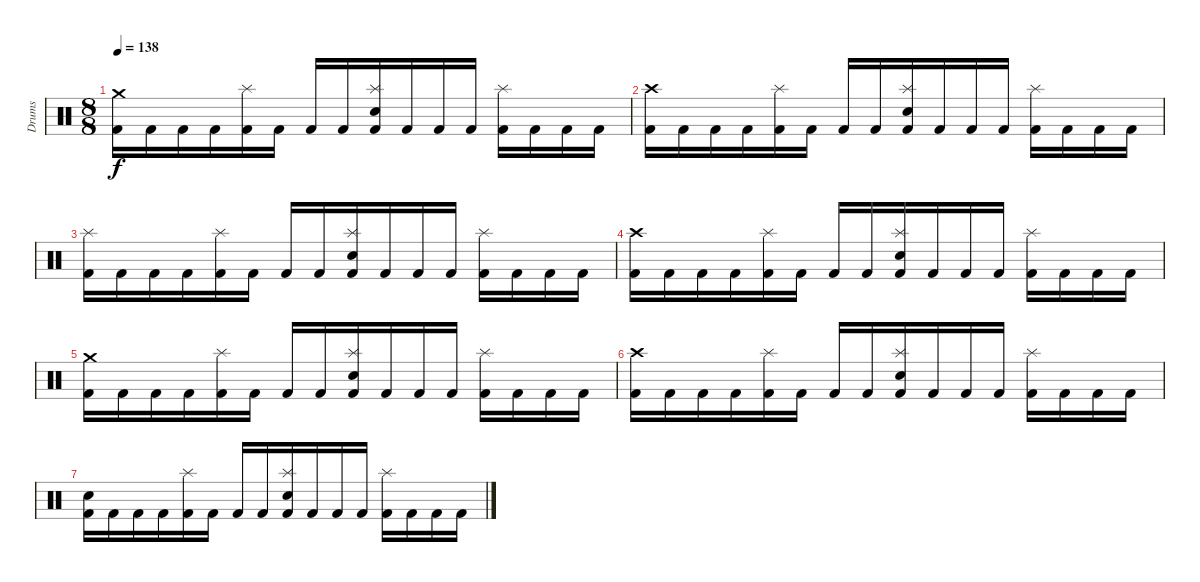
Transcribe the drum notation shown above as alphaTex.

\track ("Drums" "Drums") {instrument percussion}
\staff {score}
\articulation defaults
\ts (8 8)
\tempo 138
\clef neutral
\ks c
("Crash medium (hit)" "Kick (hit) 2").16{dy f} "Kick (hit) 2".16 "Kick (hit) 2".16 "Kick (hit) 2".16 ("Splash (hit)" "Kick (hit) 2").16 "Kick (hit) 2".16 "Kick (hit) 2".16 "Kick (hit) 2".16 ("Splash (hit)" "Snare (hit) 2" "Kick (hit) 2").16 "Kick (hit) 2".16 "Kick (hit) 2".16 "Kick (hit) 2".16 ("Splash (hit)" "Kick (hit) 2").16 "Kick (hit) 2".16 "Kick (hit) 2".16 "Kick (hit) 2".16 |
("Crash high (hit)" "Kick (hit) 2").16{volume 3} "Kick (hit) 2".16 "Kick (hit) 2".16 "Kick (hit) 2".16 ("Splash (hit)" "Kick (hit) 2").16 "Kick (hit) 2".16 "Kick (hit) 2".16 "Kick (hit) 2".16 ("Splash (hit)" "Snare (hit) 2" "Kick (hit) 2").16 "Kick (hit) 2".16 "Kick (hit) 2".16 "Kick (hit) 2".16 ("Splash (hit)" "Kick (hit) 2").16 "Kick (hit) 2".16 "Kick (hit) 2".16 "Kick (hit) 2".16 |
("Splash (hit)" "Kick (hit) 2").16 "Kick (hit) 2".16 "Kick (hit) 2".16 "Kick (hit) 2".16 ("Splash (hit)" "Kick (hit) 2").16 "Kick (hit) 2".16 "Kick (hit) 2".16 "Kick (hit) 2".16 ("Splash (hit)" "Snare (hit) 2" "Kick (hit) 2").16 "Kick (hit) 2".16 "Kick (hit) 2".16 "Kick (hit) 2".16 ("Splash (hit)" "Kick (hit) 2").16 "Kick (hit) 2".16 "Kick (hit) 2".16 "Kick (hit) 2".16 |
("Crash high (hit)" "Kick (hit) 2").16{volume 2} "Kick (hit) 2".16 "Kick (hit) 2".16 "Kick (hit) 2".16 ("Splash (hit)" "Kick (hit) 2").16 "Kick (hit) 2".16 "Kick (hit) 2".16 "Kick (hit) 2".16 ("Splash (hit)" "Snare (hit) 2" "Kick (hit) 2").16 "Kick (hit) 2".16 "Kick (hit) 2".16 "Kick (hit) 2".16 ("Splash (hit)" "Kick (hit) 2").16 "Kick (hit) 2".16 "Kick (hit) 2".16 "Kick (hit) 2".16 |
("Crash medium (hit)" "Kick (hit) 2").16 "Kick (hit) 2".16 "Kick (hit) 2".16 "Kick (hit) 2".16 ("Splash (hit)" "Kick (hit) 2").16 "Kick (hit) 2".16 "Kick (hit) 2".16 "Kick (hit) 2".16 ("Splash (hit)" "Snare (hit) 2" "Kick (hit) 2").16 "Kick (hit) 2".16 "Kick (hit) 2".16 "Kick (hit) 2".16 ("Splash (hit)" "Kick (hit) 2").16 "Kick (hit) 2".16 "Kick (hit) 2".16 "Kick (hit) 2".16 |
("Crash high (hit)" "Kick (hit) 2").16{volume 1} "Kick (hit) 2".16 "Kick (hit) 2".16 "Kick (hit) 2".16 ("Splash (hit)" "Kick (hit) 2").16 "Kick (hit) 2".16 "Kick (hit) 2".16 "Kick (hit) 2".16 ("Splash (hit)" "Snare (hit) 2" "Kick (hit) 2").16 "Kick (hit) 2".16 "Kick (hit) 2".16 "Kick (hit) 2".16 ("Splash (hit)" "Kick (hit) 2").16 "Kick (hit) 2".16 "Kick (hit) 2".16 "Kick (hit) 2".16 |
("Snare (hit) 2" "Kick (hit) 2").16 "Kick (hit) 2".16 "Kick (hit) 2".16 "Kick (hit) 2".16 ("Splash (hit)" "Kick (hit) 2").16 "Kick (hit) 2".16 "Kick (hit) 2".16 "Kick (hit) 2".16 ("Splash (hit)" "Snare (hit) 2" "Kick (hit) 2").16 "Kick (hit) 2".16 "Kick (hit) 2".16 "Kick (hit) 2".16 ("Splash (hit)" "Kick (hit) 2").16 "Kick (hit) 2".16 "Kick (hit) 2".16 "Kick (hit) 2".16
